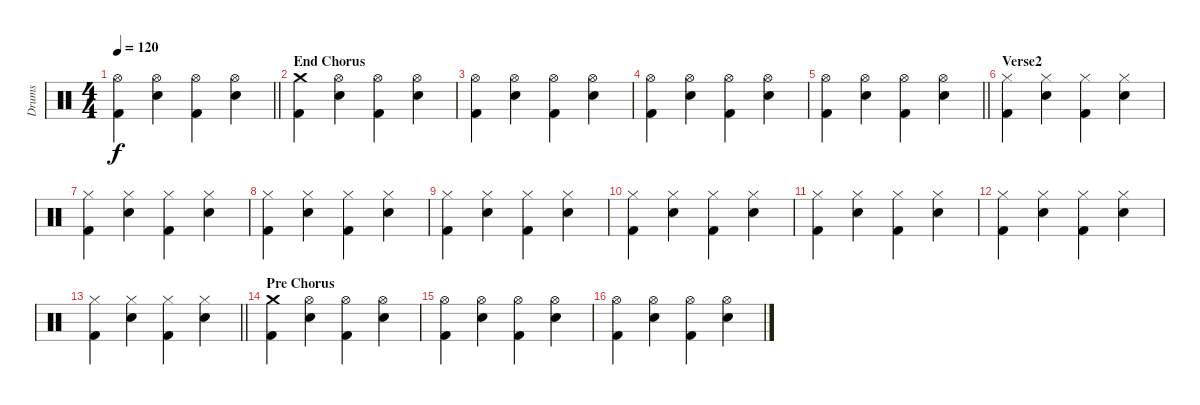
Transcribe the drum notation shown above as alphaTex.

\track ("Drums" "Drums") {instrument percussion}
\staff {score}
\articulation defaults
\ts (4 4)
\tempo 120
\clef neutral
\barLineRight lightlight
\ks c
("Hi-Hat (open)" "Kick (hit) 2").4{dy f} ("Hi-Hat (open)" "Electric Snare (hit)").4 ("Hi-Hat (open)" "Kick (hit) 2").4 ("Hi-Hat (open)" "Electric Snare (hit)").4 |
\section ("" "End Chorus")
("Crash medium (hit)" "Kick (hit) 2").4 ("Hi-Hat (open)" "Electric Snare (hit)").4 ("Hi-Hat (open)" "Kick (hit) 2").4 ("Hi-Hat (open)" "Electric Snare (hit)").4 |
("Hi-Hat (open)" "Kick (hit) 2").4 ("Hi-Hat (open)" "Electric Snare (hit)").4 ("Hi-Hat (open)" "Kick (hit) 2").4 ("Hi-Hat (open)" "Electric Snare (hit)").4 |
("Hi-Hat (open)" "Kick (hit) 2").4 ("Hi-Hat (open)" "Electric Snare (hit)").4 ("Hi-Hat (open)" "Kick (hit) 2").4 ("Hi-Hat (open)" "Electric Snare (hit)").4 |
\barLineRight lightlight
("Hi-Hat (open)" "Kick (hit) 2").4 ("Hi-Hat (open)" "Electric Snare (hit)").4 ("Hi-Hat (open)" "Kick (hit) 2").4 ("Hi-Hat (open)" "Electric Snare (hit)").4 |
\section ("" "Verse2")
("Hi-Hat (closed)" "Kick (hit) 2").4 ("Hi-Hat (closed)" "Electric Snare (hit)").4 ("Hi-Hat (closed)" "Kick (hit) 2").4 ("Hi-Hat (closed)" "Electric Snare (hit)").4 |
("Hi-Hat (closed)" "Kick (hit) 2").4 ("Hi-Hat (closed)" "Electric Snare (hit)").4 ("Hi-Hat (closed)" "Kick (hit) 2").4 ("Hi-Hat (closed)" "Electric Snare (hit)").4 |
("Hi-Hat (closed)" "Kick (hit) 2").4 ("Hi-Hat (closed)" "Electric Snare (hit)").4 ("Hi-Hat (closed)" "Kick (hit) 2").4 ("Hi-Hat (closed)" "Electric Snare (hit)").4 |
("Hi-Hat (closed)" "Kick (hit) 2").4 ("Hi-Hat (closed)" "Electric Snare (hit)").4 ("Hi-Hat (closed)" "Kick (hit) 2").4 ("Hi-Hat (closed)" "Electric Snare (hit)").4 |
("Hi-Hat (closed)" "Kick (hit) 2").4 ("Hi-Hat (closed)" "Electric Snare (hit)").4 ("Hi-Hat (closed)" "Kick (hit) 2").4 ("Hi-Hat (closed)" "Electric Snare (hit)").4 |
("Hi-Hat (closed)" "Kick (hit) 2").4 ("Hi-Hat (closed)" "Electric Snare (hit)").4 ("Hi-Hat (closed)" "Kick (hit) 2").4 ("Hi-Hat (closed)" "Electric Snare (hit)").4 |
("Hi-Hat (closed)" "Kick (hit) 2").4 ("Hi-Hat (closed)" "Electric Snare (hit)").4 ("Hi-Hat (closed)" "Kick (hit) 2").4 ("Hi-Hat (closed)" "Electric Snare (hit)").4 |
\barLineRight lightlight
("Hi-Hat (closed)" "Kick (hit) 2").4 ("Hi-Hat (closed)" "Electric Snare (hit)").4 ("Hi-Hat (closed)" "Kick (hit) 2").4 ("Hi-Hat (closed)" "Electric Snare (hit)").4 |
\section ("" "Pre Chorus")
("Crash medium (hit)" "Kick (hit) 2").4 ("Hi-Hat (open)" "Electric Snare (hit)").4 ("Hi-Hat (open)" "Kick (hit) 2").4 ("Hi-Hat (open)" "Electric Snare (hit)").4 |
("Hi-Hat (open)" "Kick (hit) 2").4 ("Hi-Hat (open)" "Electric Snare (hit)").4 ("Hi-Hat (open)" "Kick (hit) 2").4 ("Hi-Hat (open)" "Electric Snare (hit)").4 |
("Hi-Hat (open)" "Kick (hit) 2").4 ("Hi-Hat (open)" "Electric Snare (hit)").4 ("Hi-Hat (open)" "Kick (hit) 2").4 ("Hi-Hat (open)" "Electric Snare (hit)").4
